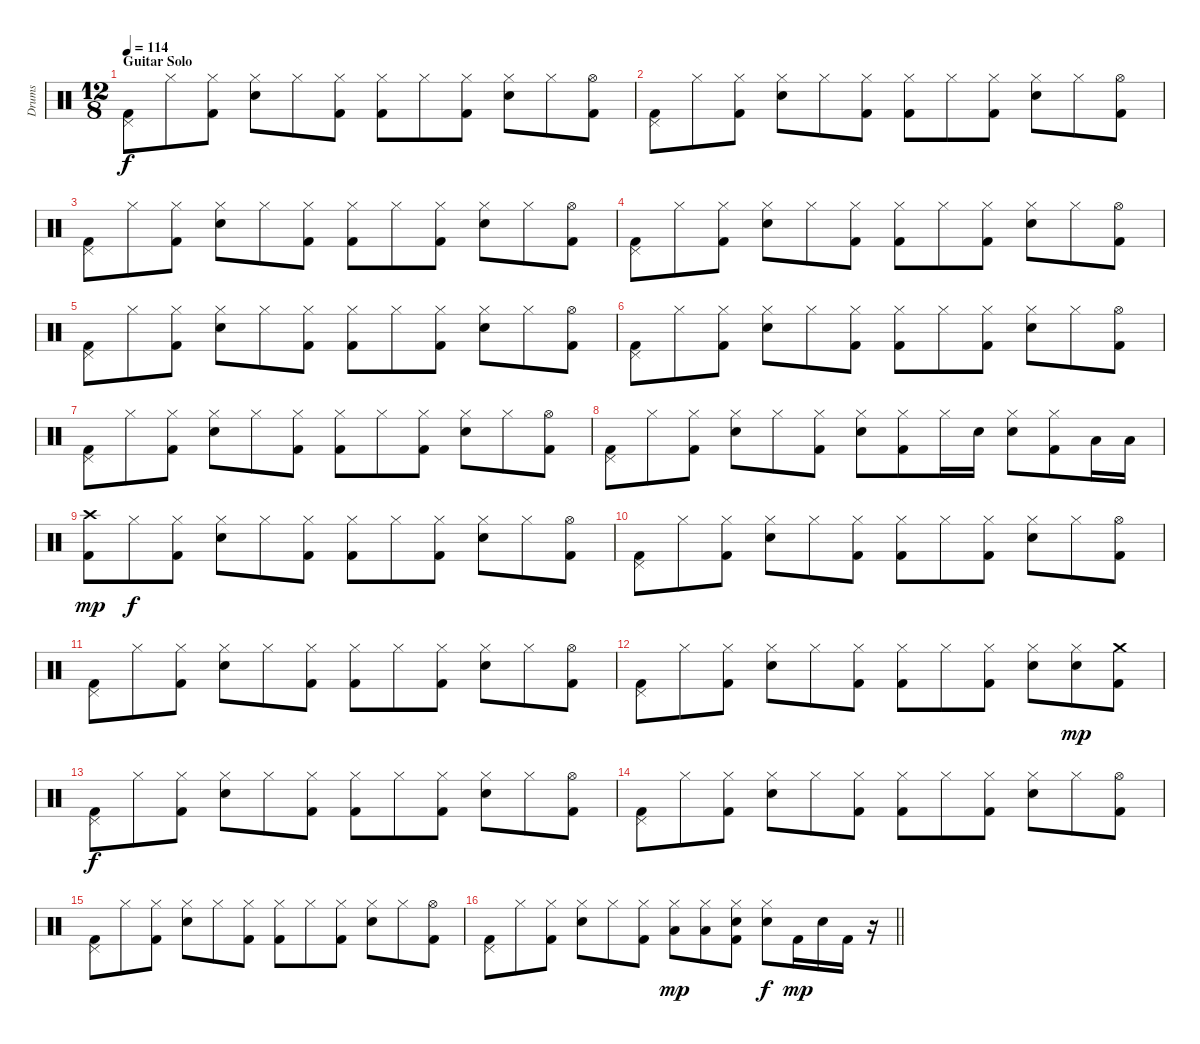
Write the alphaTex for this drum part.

\track ("Drums" "Drums") {instrument percussion}
\staff {score}
\articulation defaults
\ts (12 8)
\section ("" "Guitar Solo")
\tempo 114
\clef neutral
\ks c
("Pedal Hi-Hat (hit)" "Kick (hit) 2").8{dy f} "Hi-Hat (closed)".8 ("Hi-Hat (closed)" "Kick (hit) 2").8 ("Hi-Hat (closed)" "Snare (hit) 2").8 "Hi-Hat (closed)".8 ("Hi-Hat (closed)" "Kick (hit) 2").8 ("Hi-Hat (closed)" "Kick (hit) 2").8 "Hi-Hat (closed)".8 ("Hi-Hat (closed)" "Kick (hit) 2").8 ("Hi-Hat (closed)" "Snare (hit) 2").8 "Hi-Hat (closed)".8 ("Hi-Hat (open)" "Kick (hit) 2").8 |
("Pedal Hi-Hat (hit)" "Kick (hit) 2").8 "Hi-Hat (closed)".8 ("Hi-Hat (closed)" "Kick (hit) 2").8 ("Hi-Hat (closed)" "Snare (hit) 2").8 "Hi-Hat (closed)".8 ("Hi-Hat (closed)" "Kick (hit) 2").8 ("Hi-Hat (closed)" "Kick (hit) 2").8 "Hi-Hat (closed)".8 ("Hi-Hat (closed)" "Kick (hit) 2").8 ("Hi-Hat (closed)" "Snare (hit) 2").8 "Hi-Hat (closed)".8 ("Hi-Hat (open)" "Kick (hit) 2").8 |
("Pedal Hi-Hat (hit)" "Kick (hit) 2").8 "Hi-Hat (closed)".8 ("Hi-Hat (closed)" "Kick (hit) 2").8 ("Hi-Hat (closed)" "Snare (hit) 2").8 "Hi-Hat (closed)".8 ("Hi-Hat (closed)" "Kick (hit) 2").8 ("Hi-Hat (closed)" "Kick (hit) 2").8 "Hi-Hat (closed)".8 ("Hi-Hat (closed)" "Kick (hit) 2").8 ("Hi-Hat (closed)" "Snare (hit) 2").8 "Hi-Hat (closed)".8 ("Hi-Hat (open)" "Kick (hit) 2").8 |
("Pedal Hi-Hat (hit)" "Kick (hit) 2").8 "Hi-Hat (closed)".8 ("Hi-Hat (closed)" "Kick (hit) 2").8 ("Hi-Hat (closed)" "Snare (hit) 2").8 "Hi-Hat (closed)".8 ("Hi-Hat (closed)" "Kick (hit) 2").8 ("Hi-Hat (closed)" "Kick (hit) 2").8 "Hi-Hat (closed)".8 ("Hi-Hat (closed)" "Kick (hit) 2").8 ("Hi-Hat (closed)" "Snare (hit) 2").8 "Hi-Hat (closed)".8 ("Hi-Hat (open)" "Kick (hit) 2").8 |
("Pedal Hi-Hat (hit)" "Kick (hit) 2").8 "Hi-Hat (closed)".8 ("Hi-Hat (closed)" "Kick (hit) 2").8 ("Hi-Hat (closed)" "Snare (hit) 2").8 "Hi-Hat (closed)".8 ("Hi-Hat (closed)" "Kick (hit) 2").8 ("Hi-Hat (closed)" "Kick (hit) 2").8 "Hi-Hat (closed)".8 ("Hi-Hat (closed)" "Kick (hit) 2").8 ("Hi-Hat (closed)" "Snare (hit) 2").8 "Hi-Hat (closed)".8 ("Hi-Hat (open)" "Kick (hit) 2").8 |
("Pedal Hi-Hat (hit)" "Kick (hit) 2").8 "Hi-Hat (closed)".8 ("Hi-Hat (closed)" "Kick (hit) 2").8 ("Hi-Hat (closed)" "Snare (hit) 2").8 "Hi-Hat (closed)".8 ("Hi-Hat (closed)" "Kick (hit) 2").8 ("Hi-Hat (closed)" "Kick (hit) 2").8 "Hi-Hat (closed)".8 ("Hi-Hat (closed)" "Kick (hit) 2").8 ("Hi-Hat (closed)" "Snare (hit) 2").8 "Hi-Hat (closed)".8 ("Hi-Hat (open)" "Kick (hit) 2").8 |
("Pedal Hi-Hat (hit)" "Kick (hit) 2").8 "Hi-Hat (closed)".8 ("Hi-Hat (closed)" "Kick (hit) 2").8 ("Hi-Hat (closed)" "Snare (hit) 2").8 "Hi-Hat (closed)".8 ("Hi-Hat (closed)" "Kick (hit) 2").8 ("Hi-Hat (closed)" "Kick (hit) 2").8 "Hi-Hat (closed)".8 ("Hi-Hat (closed)" "Kick (hit) 2").8 ("Hi-Hat (closed)" "Snare (hit) 2").8 "Hi-Hat (closed)".8 ("Hi-Hat (open)" "Kick (hit) 2").8 |
("Pedal Hi-Hat (hit)" "Kick (hit) 2").8 "Hi-Hat (closed)".8 ("Hi-Hat (closed)" "Kick (hit) 2").8 ("Hi-Hat (closed)" "Snare (hit) 2").8 "Hi-Hat (closed)".8 ("Hi-Hat (closed)" "Kick (hit) 2").8 ("Hi-Hat (closed)" "Snare (hit) 2").8 ("Hi-Hat (closed)" "Kick (hit) 2").8 "Hi-Hat (closed)".16 "Snare (hit) 2".16 ("Hi-Hat (closed)" "Snare (hit) 2").8 ("Hi-Hat (closed)" "Kick (hit) 2").8 "Low Tom (hit)".16 "Low Tom (hit)".16 |
("Crash high (hit)" "Kick (hit) 2").8{dy mp} "Hi-Hat (closed)".8{dy f} ("Hi-Hat (closed)" "Kick (hit) 2").8 ("Hi-Hat (closed)" "Snare (hit) 2").8 "Hi-Hat (closed)".8 ("Hi-Hat (closed)" "Kick (hit) 2").8 ("Hi-Hat (closed)" "Kick (hit) 2").8 "Hi-Hat (closed)".8 ("Hi-Hat (closed)" "Kick (hit) 2").8 ("Hi-Hat (closed)" "Snare (hit) 2").8 "Hi-Hat (closed)".8 ("Hi-Hat (open)" "Kick (hit) 2").8 |
("Pedal Hi-Hat (hit)" "Kick (hit) 2").8 "Hi-Hat (closed)".8 ("Hi-Hat (closed)" "Kick (hit) 2").8 ("Hi-Hat (closed)" "Snare (hit) 2").8 "Hi-Hat (closed)".8 ("Hi-Hat (closed)" "Kick (hit) 2").8 ("Hi-Hat (closed)" "Kick (hit) 2").8 "Hi-Hat (closed)".8 ("Hi-Hat (closed)" "Kick (hit) 2").8 ("Hi-Hat (closed)" "Snare (hit) 2").8 "Hi-Hat (closed)".8 ("Hi-Hat (open)" "Kick (hit) 2").8 |
("Pedal Hi-Hat (hit)" "Kick (hit) 2").8 "Hi-Hat (closed)".8 ("Hi-Hat (closed)" "Kick (hit) 2").8 ("Hi-Hat (closed)" "Snare (hit) 2").8 "Hi-Hat (closed)".8 ("Hi-Hat (closed)" "Kick (hit) 2").8 ("Hi-Hat (closed)" "Kick (hit) 2").8 "Hi-Hat (closed)".8 ("Hi-Hat (closed)" "Kick (hit) 2").8 ("Hi-Hat (closed)" "Snare (hit) 2").8 "Hi-Hat (closed)".8 ("Hi-Hat (open)" "Kick (hit) 2").8 |
("Pedal Hi-Hat (hit)" "Kick (hit) 2").8 "Hi-Hat (closed)".8 ("Hi-Hat (closed)" "Kick (hit) 2").8 ("Hi-Hat (closed)" "Snare (hit) 2").8 "Hi-Hat (closed)".8 ("Hi-Hat (closed)" "Kick (hit) 2").8 ("Hi-Hat (closed)" "Kick (hit) 2").8 "Hi-Hat (closed)".8 ("Hi-Hat (closed)" "Kick (hit) 2").8 ("Hi-Hat (closed)" "Snare (hit) 2").8 ("Hi-Hat (closed)" "Snare (hit) 2").8{dy mp} ("Crash medium (hit)" "Kick (hit) 2").8 |
("Pedal Hi-Hat (hit)" "Kick (hit) 2").8{dy f} "Hi-Hat (closed)".8 ("Hi-Hat (closed)" "Kick (hit) 2").8 ("Hi-Hat (closed)" "Snare (hit) 2").8 "Hi-Hat (closed)".8 ("Hi-Hat (closed)" "Kick (hit) 2").8 ("Hi-Hat (closed)" "Kick (hit) 2").8 "Hi-Hat (closed)".8 ("Hi-Hat (closed)" "Kick (hit) 2").8 ("Hi-Hat (closed)" "Snare (hit) 2").8 "Hi-Hat (closed)".8 ("Hi-Hat (open)" "Kick (hit) 2").8 |
("Pedal Hi-Hat (hit)" "Kick (hit) 2").8 "Hi-Hat (closed)".8 ("Hi-Hat (closed)" "Kick (hit) 2").8 ("Hi-Hat (closed)" "Snare (hit) 2").8 "Hi-Hat (closed)".8 ("Hi-Hat (closed)" "Kick (hit) 2").8 ("Hi-Hat (closed)" "Kick (hit) 2").8 "Hi-Hat (closed)".8 ("Hi-Hat (closed)" "Kick (hit) 2").8 ("Hi-Hat (closed)" "Snare (hit) 2").8 "Hi-Hat (closed)".8 ("Hi-Hat (open)" "Kick (hit) 2").8 |
("Pedal Hi-Hat (hit)" "Kick (hit) 2").8 "Hi-Hat (closed)".8 ("Hi-Hat (closed)" "Kick (hit) 2").8 ("Hi-Hat (closed)" "Snare (hit) 2").8 "Hi-Hat (closed)".8 ("Hi-Hat (closed)" "Kick (hit) 2").8 ("Hi-Hat (closed)" "Kick (hit) 2").8 "Hi-Hat (closed)".8 ("Hi-Hat (closed)" "Kick (hit) 2").8 ("Hi-Hat (closed)" "Snare (hit) 2").8 "Hi-Hat (closed)".8 ("Hi-Hat (open)" "Kick (hit) 2").8 |
\barLineRight lightlight
("Pedal Hi-Hat (hit)" "Kick (hit) 2").8 "Hi-Hat (closed)".8 ("Hi-Hat (closed)" "Kick (hit) 2").8 ("Hi-Hat (closed)" "Snare (hit) 2").8 "Hi-Hat (closed)".8 ("Hi-Hat (closed)" "Kick (hit) 2").8 ("Hi-Hat (closed)" "Low Tom (hit)").8{dy mp} ("Hi-Hat (closed)" "Low Tom (hit)").8 ("Hi-Hat (closed)" "Snare (hit) 2" "Kick (hit) 2").8 ("Hi-Hat (closed)" "Snare (hit) 2").8{dy f} "Kick (hit) 2".16{dy mp} "Snare (hit) 2".16 "Kick (hit) 2".16 r.16
